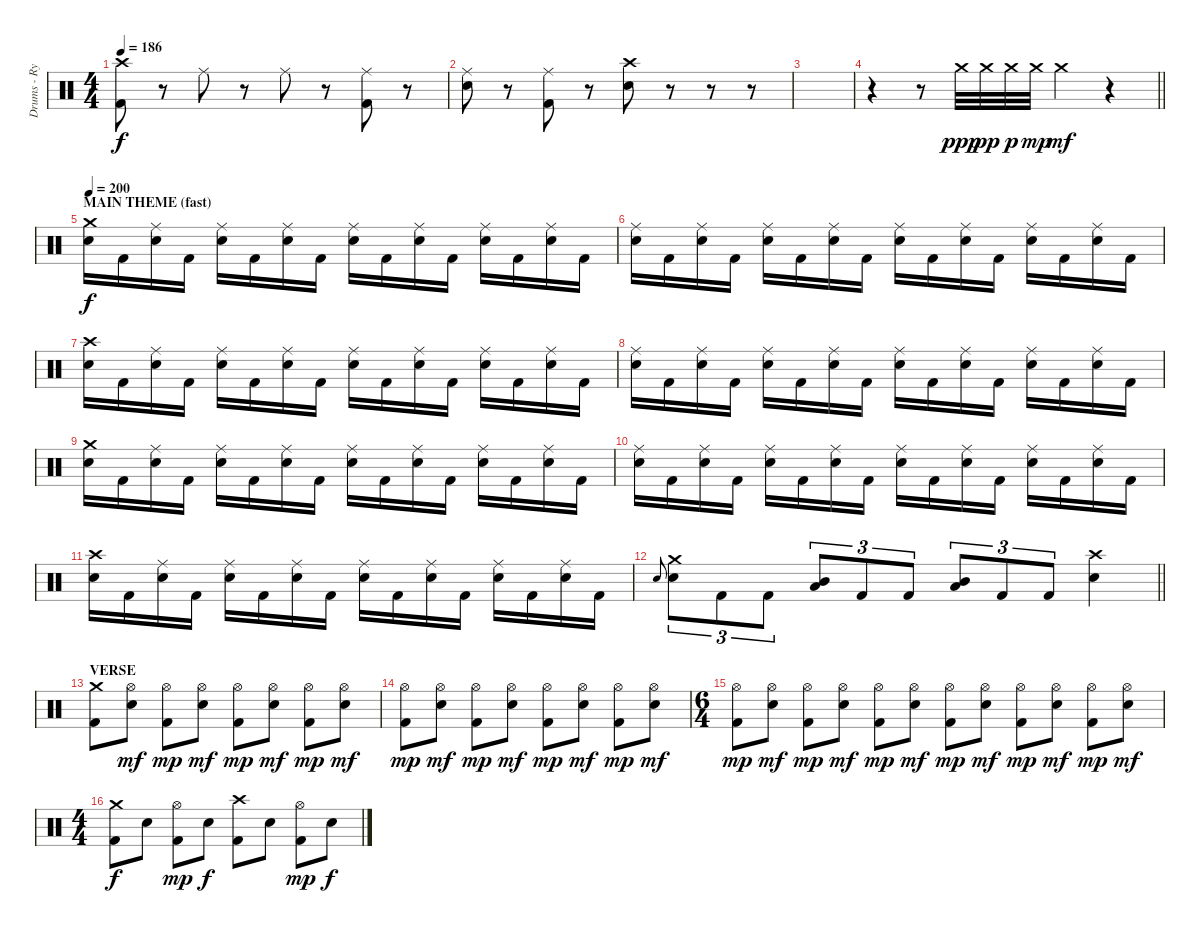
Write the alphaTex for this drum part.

\track ("Drums - Ryan Bates" "Drums - Ry") {instrument percussion}
\staff {score}
\articulation defaults
\ts (4 4)
\tempo 186
\clef neutral
\ks c
("Crash high (hit)" "Kick (hit) 2").8{dy f} r.8 "Ride (middle)".8 r.8 "Ride (middle)".8 r.8 ("Ride (middle)" "Kick (hit) 2").8 r.8 |
("Ride (middle)" "Snare (hit) 2").8 r.8 ("Ride (middle)" "Kick (hit) 2").8 r.8 ("Crash high (hit)" "Snare (hit) 2").8 r.8 r.8 r.8 |
|
\barLineRight lightlight
r.4 r.8 "Crash medium (hit)".32{dy ppp} "Crash medium (hit)".32{dy pp} "Crash medium (hit)".32{dy p} "Crash medium (hit)".32{dy mp} "Crash medium (hit)".4{dy mf} r.4 |
\section ("" "MAIN THEME (fast)")
\tempo 200
("Crash medium (hit)" "Snare (hit) 2").16{dy f} "Kick (hit) 2".16 ("Ride (middle)" "Snare (hit) 2").16 "Kick (hit) 2".16 ("Ride (middle)" "Snare (hit) 2").16 "Kick (hit) 2".16 ("Ride (middle)" "Snare (hit) 2").16 "Kick (hit) 2".16 ("Ride (middle)" "Snare (hit) 2").16 "Kick (hit) 2".16 ("Ride (middle)" "Snare (hit) 2").16 "Kick (hit) 2".16 ("Ride (middle)" "Snare (hit) 2").16 "Kick (hit) 2".16 ("Ride (middle)" "Snare (hit) 2").16 "Kick (hit) 2".16 |
("Ride (middle)" "Snare (hit) 2").16 "Kick (hit) 2".16 ("Ride (middle)" "Snare (hit) 2").16 "Kick (hit) 2".16 ("Ride (middle)" "Snare (hit) 2").16 "Kick (hit) 2".16 ("Ride (middle)" "Snare (hit) 2").16 "Kick (hit) 2".16 ("Ride (middle)" "Snare (hit) 2").16 "Kick (hit) 2".16 ("Ride (middle)" "Snare (hit) 2").16 "Kick (hit) 2".16 ("Ride (middle)" "Snare (hit) 2").16 "Kick (hit) 2".16 ("Ride (middle)" "Snare (hit) 2").16 "Kick (hit) 2".16 |
("Crash high (hit)" "Snare (hit) 2").16 "Kick (hit) 2".16 ("Ride (middle)" "Snare (hit) 2").16 "Kick (hit) 2".16 ("Ride (middle)" "Snare (hit) 2").16 "Kick (hit) 2".16 ("Ride (middle)" "Snare (hit) 2").16 "Kick (hit) 2".16 ("Ride (middle)" "Snare (hit) 2").16 "Kick (hit) 2".16 ("Ride (middle)" "Snare (hit) 2").16 "Kick (hit) 2".16 ("Ride (middle)" "Snare (hit) 2").16 "Kick (hit) 2".16 ("Ride (middle)" "Snare (hit) 2").16 "Kick (hit) 2".16 |
("Ride (middle)" "Snare (hit) 2").16 "Kick (hit) 2".16 ("Ride (middle)" "Snare (hit) 2").16 "Kick (hit) 2".16 ("Ride (middle)" "Snare (hit) 2").16 "Kick (hit) 2".16 ("Ride (middle)" "Snare (hit) 2").16 "Kick (hit) 2".16 ("Ride (middle)" "Snare (hit) 2").16 "Kick (hit) 2".16 ("Ride (middle)" "Snare (hit) 2").16 "Kick (hit) 2".16 ("Ride (middle)" "Snare (hit) 2").16 "Kick (hit) 2".16 ("Ride (middle)" "Snare (hit) 2").16 "Kick (hit) 2".16 |
("Crash medium (hit)" "Snare (hit) 2").16 "Kick (hit) 2".16 ("Ride (middle)" "Snare (hit) 2").16 "Kick (hit) 2".16 ("Ride (middle)" "Snare (hit) 2").16 "Kick (hit) 2".16 ("Ride (middle)" "Snare (hit) 2").16 "Kick (hit) 2".16 ("Ride (middle)" "Snare (hit) 2").16 "Kick (hit) 2".16 ("Ride (middle)" "Snare (hit) 2").16 "Kick (hit) 2".16 ("Ride (middle)" "Snare (hit) 2").16 "Kick (hit) 2".16 ("Ride (middle)" "Snare (hit) 2").16 "Kick (hit) 2".16 |
("Ride (middle)" "Snare (hit) 2").16 "Kick (hit) 2".16 ("Ride (middle)" "Snare (hit) 2").16 "Kick (hit) 2".16 ("Ride (middle)" "Snare (hit) 2").16 "Kick (hit) 2".16 ("Ride (middle)" "Snare (hit) 2").16 "Kick (hit) 2".16 ("Ride (middle)" "Snare (hit) 2").16 "Kick (hit) 2".16 ("Ride (middle)" "Snare (hit) 2").16 "Kick (hit) 2".16 ("Ride (middle)" "Snare (hit) 2").16 "Kick (hit) 2".16 ("Ride (middle)" "Snare (hit) 2").16 "Kick (hit) 2".16 |
("Crash high (hit)" "Snare (hit) 2").16 "Kick (hit) 2".16 ("Ride (middle)" "Snare (hit) 2").16 "Kick (hit) 2".16 ("Ride (middle)" "Snare (hit) 2").16 "Kick (hit) 2".16 ("Ride (middle)" "Snare (hit) 2").16 "Kick (hit) 2".16 ("Ride (middle)" "Snare (hit) 2").16 "Kick (hit) 2".16 ("Ride (middle)" "Snare (hit) 2").16 "Kick (hit) 2".16 ("Ride (middle)" "Snare (hit) 2").16 "Kick (hit) 2".16 ("Ride (middle)" "Snare (hit) 2").16 "Kick (hit) 2".16 |
\barLineRight lightlight "Snare (hit) 2".8{gr onbeat}
("Crash medium (hit)" "Snare (hit) 2").8{tu (3 2)} "Kick (hit) 2".8{tu (3 2)} "Kick (hit) 2".8{tu (3 2)} ("Mid Tom (hit)" "Low Tom (hit)").8{tu (3 2)} "Kick (hit) 2".8{tu (3 2)} "Kick (hit) 2".8{tu (3 2)} ("Mid Tom (hit)" "Low Tom (hit)").8{tu (3 2)} "Kick (hit) 2".8{tu (3 2)} "Kick (hit) 2".8{tu (3 2)} ("Crash high (hit)" "Snare (hit) 2").4 |
\section ("" "VERSE")
("Crash medium (hit)" "Kick (hit) 2").8 ("Hi-Hat (open)" "Snare (hit) 2").8{dy mf} ("Hi-Hat (open)" "Kick (hit) 2").8{dy mp} ("Hi-Hat (open)" "Snare (hit) 2").8{dy mf} ("Hi-Hat (open)" "Kick (hit) 2").8{dy mp} ("Hi-Hat (open)" "Snare (hit) 2").8{dy mf} ("Hi-Hat (open)" "Kick (hit) 2").8{dy mp} ("Hi-Hat (open)" "Snare (hit) 2").8{dy mf} |
("Hi-Hat (open)" "Kick (hit) 2").8{dy mp} ("Hi-Hat (open)" "Snare (hit) 2").8{dy mf} ("Hi-Hat (open)" "Kick (hit) 2").8{dy mp} ("Hi-Hat (open)" "Snare (hit) 2").8{dy mf} ("Hi-Hat (open)" "Kick (hit) 2").8{dy mp} ("Hi-Hat (open)" "Snare (hit) 2").8{dy mf} ("Hi-Hat (open)" "Kick (hit) 2").8{dy mp} ("Hi-Hat (open)" "Snare (hit) 2").8{dy mf} |
\ts (6 4)
("Hi-Hat (open)" "Kick (hit) 2").8{dy mp} ("Hi-Hat (open)" "Snare (hit) 2").8{dy mf} ("Hi-Hat (open)" "Kick (hit) 2").8{dy mp} ("Hi-Hat (open)" "Snare (hit) 2").8{dy mf} ("Hi-Hat (open)" "Kick (hit) 2").8{dy mp} ("Hi-Hat (open)" "Snare (hit) 2").8{dy mf} ("Hi-Hat (open)" "Kick (hit) 2").8{dy mp} ("Hi-Hat (open)" "Snare (hit) 2").8{dy mf} ("Hi-Hat (open)" "Kick (hit) 2").8{dy mp} ("Hi-Hat (open)" "Snare (hit) 2").8{dy mf} ("Hi-Hat (open)" "Kick (hit) 2").8{dy mp} ("Hi-Hat (open)" "Snare (hit) 2").8{dy mf} |
\ts (4 4)
("Crash medium (hit)" "Kick (hit) 2").8{dy f} "Snare (hit) 2".8 ("Hi-Hat (open)" "Kick (hit) 2").8{dy mp} "Snare (hit) 2".8{dy f} ("Crash high (hit)" "Kick (hit) 2").8 "Snare (hit) 2".8 ("Hi-Hat (open)" "Kick (hit) 2").8{dy mp} "Snare (hit) 2".8{dy f}
